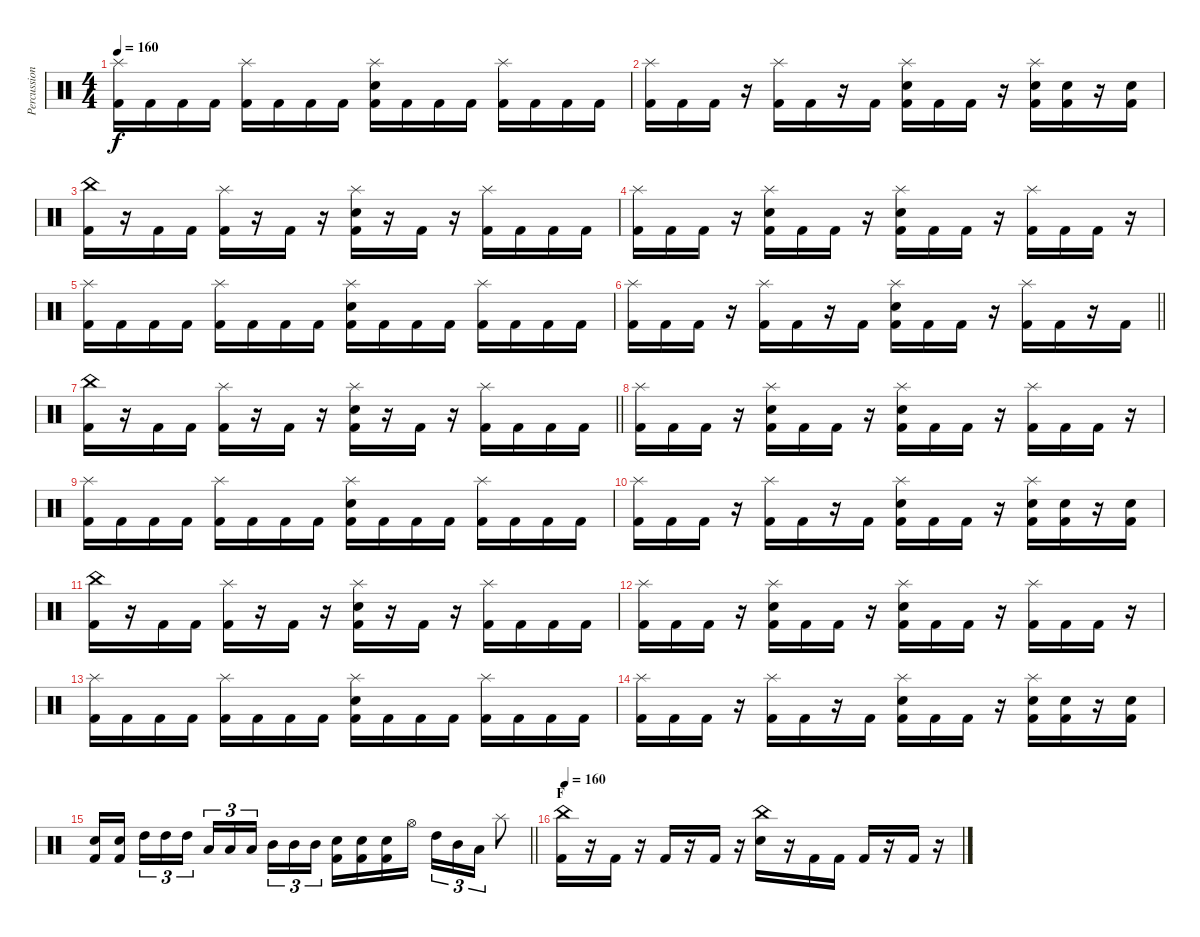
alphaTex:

\track ("Percussion" "Percussion") {instrument percussion}
\staff {score}
\articulation defaults
\ts (4 4)
\tempo 160
\clef neutral
\ks c
("Splash (hit)" "Kick (hit) 2").16{dy f} "Kick (hit) 2".16 "Kick (hit) 2".16 "Kick (hit) 2".16 ("Splash (hit)" "Kick (hit) 2").16 "Kick (hit) 2".16 "Kick (hit) 2".16 "Kick (hit) 2".16 ("Splash (hit)" "Electric Snare (hit)" "Kick (hit) 2").16 "Kick (hit) 2".16 "Kick (hit) 2".16 "Kick (hit) 2".16 ("Splash (hit)" "Kick (hit) 2").16 "Kick (hit) 2".16 "Kick (hit) 2".16 "Kick (hit) 2".16 |
("Splash (hit)" "Kick (hit) 2").16 "Kick (hit) 2".16 "Kick (hit) 2".16 r.16 ("Splash (hit)" "Kick (hit) 2").16 "Kick (hit) 2".16 r.16 "Kick (hit) 2".16 ("Splash (hit)" "Electric Snare (hit)" "Kick (hit) 2").16 "Kick (hit) 2".16 "Kick (hit) 2".16 r.16 ("Splash (hit)" "Electric Snare (hit)" "Kick (hit) 2").16 ("Electric Snare (hit)" "Kick (hit) 2").16 r.16 ("Electric Snare (hit)" "Kick (hit) 2").16 |
("China (hit)" "Kick (hit) 2").16 r.16 "Kick (hit) 2".16 "Kick (hit) 2".16 ("Splash (hit)" "Kick (hit) 2").16 r.16 "Kick (hit) 2".16 r.16 ("Splash (hit)" "Electric Snare (hit)" "Kick (hit) 2").16 r.16 "Kick (hit) 2".16 r.16 ("Splash (hit)" "Kick (hit) 2").16 "Kick (hit) 2".16 "Kick (hit) 2".16 "Kick (hit) 2".16 |
("Splash (hit)" "Kick (hit) 2").16 "Kick (hit) 2".16 "Kick (hit) 2".16 r.16 ("Splash (hit)" "Electric Snare (hit)" "Kick (hit) 2").16 "Kick (hit) 2".16 "Kick (hit) 2".16 r.16 ("Splash (hit)" "Electric Snare (hit)" "Kick (hit) 2").16 "Kick (hit) 2".16 "Kick (hit) 2".16 r.16 ("Splash (hit)" "Kick (hit) 2").16 "Kick (hit) 2".16 "Kick (hit) 2".16 r.16 |
("Splash (hit)" "Kick (hit) 2").16 "Kick (hit) 2".16 "Kick (hit) 2".16 "Kick (hit) 2".16 ("Splash (hit)" "Kick (hit) 2").16 "Kick (hit) 2".16 "Kick (hit) 2".16 "Kick (hit) 2".16 ("Splash (hit)" "Electric Snare (hit)" "Kick (hit) 2").16 "Kick (hit) 2".16 "Kick (hit) 2".16 "Kick (hit) 2".16 ("Splash (hit)" "Kick (hit) 2").16 "Kick (hit) 2".16 "Kick (hit) 2".16 "Kick (hit) 2".16 |
\barLineRight lightlight
("Splash (hit)" "Kick (hit) 2").16 "Kick (hit) 2".16 "Kick (hit) 2".16 r.16 ("Splash (hit)" "Kick (hit) 2").16 "Kick (hit) 2".16 r.16 "Kick (hit) 2".16 ("Splash (hit)" "Electric Snare (hit)" "Kick (hit) 2").16 "Kick (hit) 2".16 "Kick (hit) 2".16 r.16 ("Splash (hit)" "Kick (hit) 2").16 "Kick (hit) 2".16 r.16 "Kick (hit) 2".16 |
\barLineRight lightlight
("China (hit)" "Kick (hit) 2").16 r.16 "Kick (hit) 2".16 "Kick (hit) 2".16 ("Splash (hit)" "Kick (hit) 2").16 r.16 "Kick (hit) 2".16 r.16 ("Splash (hit)" "Electric Snare (hit)" "Kick (hit) 2").16 r.16 "Kick (hit) 2".16 r.16 ("Splash (hit)" "Kick (hit) 2").16 "Kick (hit) 2".16 "Kick (hit) 2".16 "Kick (hit) 2".16 |
("Splash (hit)" "Kick (hit) 2").16 "Kick (hit) 2".16 "Kick (hit) 2".16 r.16 ("Splash (hit)" "Electric Snare (hit)" "Kick (hit) 2").16 "Kick (hit) 2".16 "Kick (hit) 2".16 r.16 ("Splash (hit)" "Electric Snare (hit)" "Kick (hit) 2").16 "Kick (hit) 2".16 "Kick (hit) 2".16 r.16 ("Splash (hit)" "Kick (hit) 2").16 "Kick (hit) 2".16 "Kick (hit) 2".16 r.16 |
("Splash (hit)" "Kick (hit) 2").16 "Kick (hit) 2".16 "Kick (hit) 2".16 "Kick (hit) 2".16 ("Splash (hit)" "Kick (hit) 2").16 "Kick (hit) 2".16 "Kick (hit) 2".16 "Kick (hit) 2".16 ("Splash (hit)" "Electric Snare (hit)" "Kick (hit) 2").16 "Kick (hit) 2".16 "Kick (hit) 2".16 "Kick (hit) 2".16 ("Splash (hit)" "Kick (hit) 2").16 "Kick (hit) 2".16 "Kick (hit) 2".16 "Kick (hit) 2".16 |
("Splash (hit)" "Kick (hit) 2").16 "Kick (hit) 2".16 "Kick (hit) 2".16 r.16 ("Splash (hit)" "Kick (hit) 2").16 "Kick (hit) 2".16 r.16 "Kick (hit) 2".16 ("Splash (hit)" "Electric Snare (hit)" "Kick (hit) 2").16 "Kick (hit) 2".16 "Kick (hit) 2".16 r.16 ("Splash (hit)" "Electric Snare (hit)" "Kick (hit) 2").16 ("Electric Snare (hit)" "Kick (hit) 2").16 r.16 ("Electric Snare (hit)" "Kick (hit) 2").16 |
("China (hit)" "Kick (hit) 2").16 r.16 "Kick (hit) 2".16 "Kick (hit) 2".16 ("Splash (hit)" "Kick (hit) 2").16 r.16 "Kick (hit) 2".16 r.16 ("Splash (hit)" "Electric Snare (hit)" "Kick (hit) 2").16 r.16 "Kick (hit) 2".16 r.16 ("Splash (hit)" "Kick (hit) 2").16 "Kick (hit) 2".16 "Kick (hit) 2".16 "Kick (hit) 2".16 |
("Splash (hit)" "Kick (hit) 2").16 "Kick (hit) 2".16 "Kick (hit) 2".16 r.16 ("Splash (hit)" "Electric Snare (hit)" "Kick (hit) 2").16 "Kick (hit) 2".16 "Kick (hit) 2".16 r.16 ("Splash (hit)" "Electric Snare (hit)" "Kick (hit) 2").16 "Kick (hit) 2".16 "Kick (hit) 2".16 r.16 ("Splash (hit)" "Kick (hit) 2").16 "Kick (hit) 2".16 "Kick (hit) 2".16 r.16 |
("Splash (hit)" "Kick (hit) 2").16 "Kick (hit) 2".16 "Kick (hit) 2".16 "Kick (hit) 2".16 ("Splash (hit)" "Kick (hit) 2").16 "Kick (hit) 2".16 "Kick (hit) 2".16 "Kick (hit) 2".16 ("Splash (hit)" "Electric Snare (hit)" "Kick (hit) 2").16 "Kick (hit) 2".16 "Kick (hit) 2".16 "Kick (hit) 2".16 ("Splash (hit)" "Kick (hit) 2").16 "Kick (hit) 2".16 "Kick (hit) 2".16 "Kick (hit) 2".16 |
("Splash (hit)" "Kick (hit) 2").16 "Kick (hit) 2".16 "Kick (hit) 2".16 r.16 ("Splash (hit)" "Kick (hit) 2").16 "Kick (hit) 2".16 r.16 "Kick (hit) 2".16 ("Splash (hit)" "Electric Snare (hit)" "Kick (hit) 2").16 "Kick (hit) 2".16 "Kick (hit) 2".16 r.16 ("Splash (hit)" "Electric Snare (hit)" "Kick (hit) 2").16 ("Electric Snare (hit)" "Kick (hit) 2").16 r.16 ("Electric Snare (hit)" "Kick (hit) 2").16 |
\barLineRight lightlight
("Electric Snare (hit)" "Kick (hit) 2").16 ("Electric Snare (hit)" "Kick (hit) 2").16 "High Tom (hit)".16{tu (3 2)} "High Tom (hit)".16{tu (3 2)} "High Tom (hit)".16{tu (3 2)} "Low Tom (hit)".16{tu (3 2)} "Low Tom (hit)".16{tu (3 2)} "Low Tom (hit)".16{tu (3 2)} "Mid Tom (hit)".16{tu (3 2)} "Mid Tom (hit)".16{tu (3 2)} "Mid Tom (hit)".16{tu (3 2)} ("Electric Snare (hit)" "Kick (hit) 2").16 ("Electric Snare (hit)" "Kick (hit) 2").16 ("Electric Snare (hit)" "Kick (hit) 2").16 "Hi-Hat (open)".16 "High Tom (hit)".16{tu (3 2)} "Mid Tom (hit)".16{tu (3 2)} "Low Tom (hit)".16{tu (3 2)} "Splash (hit)".8 |
\section ("" "F")
\tempo 160
("China (hit)" "Kick (hit) 2").16 r.16 "Kick (hit) 2".16 r.16 "Kick (hit) 2".16 r.16 "Kick (hit) 2".16 r.16 ("China (hit)" "Electric Snare (hit)").16 r.16 "Kick (hit) 2".16 "Kick (hit) 2".16 "Kick (hit) 2".16 r.16 "Kick (hit) 2".16 r.16
